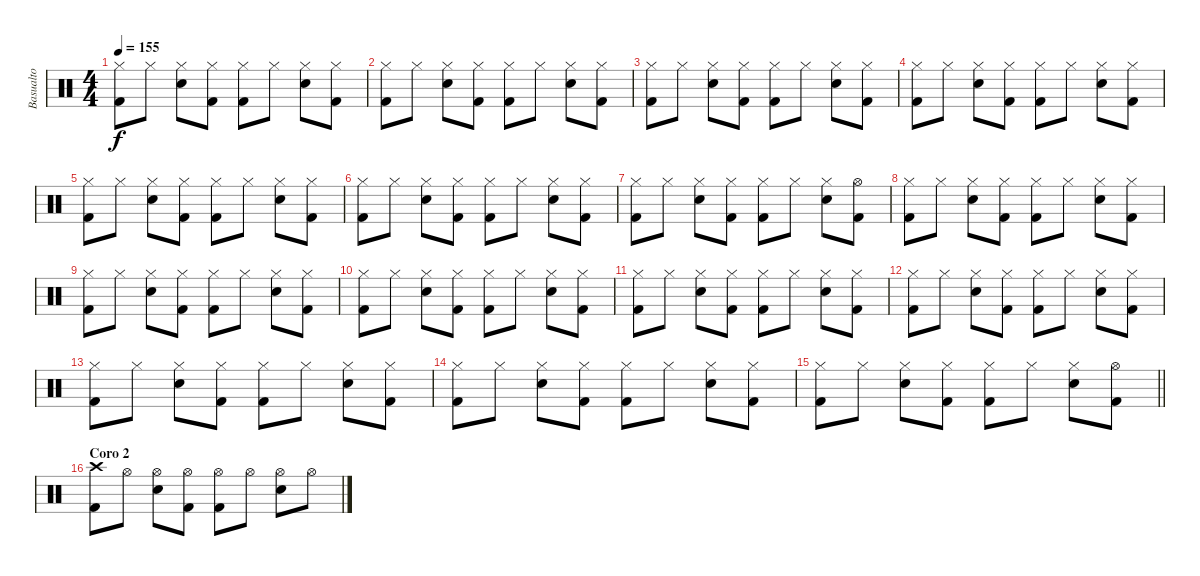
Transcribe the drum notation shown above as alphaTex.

\track ("Basualto" "Basualto") {instrument percussion}
\staff {score}
\articulation defaults
\ts (4 4)
\tempo 155
\clef neutral
\ks c
("Hi-Hat (closed)" "Kick (hit) 2").8{dy f} "Hi-Hat (closed)".8 ("Hi-Hat (closed)" "Electric Snare (hit)").8 ("Hi-Hat (closed)" "Kick (hit) 2").8 ("Hi-Hat (closed)" "Kick (hit) 2").8 "Hi-Hat (closed)".8 ("Hi-Hat (closed)" "Electric Snare (hit)").8 ("Hi-Hat (closed)" "Kick (hit) 2").8 |
("Hi-Hat (closed)" "Kick (hit) 2").8 "Hi-Hat (closed)".8 ("Hi-Hat (closed)" "Electric Snare (hit)").8 ("Hi-Hat (closed)" "Kick (hit) 2").8 ("Hi-Hat (closed)" "Kick (hit) 2").8 "Hi-Hat (closed)".8 ("Hi-Hat (closed)" "Electric Snare (hit)").8 ("Hi-Hat (closed)" "Kick (hit) 2").8 |
("Hi-Hat (closed)" "Kick (hit) 2").8 "Hi-Hat (closed)".8 ("Hi-Hat (closed)" "Electric Snare (hit)").8 ("Hi-Hat (closed)" "Kick (hit) 2").8 ("Hi-Hat (closed)" "Kick (hit) 2").8 "Hi-Hat (closed)".8 ("Hi-Hat (closed)" "Electric Snare (hit)").8 ("Hi-Hat (closed)" "Kick (hit) 2").8 |
("Hi-Hat (closed)" "Kick (hit) 2").8 "Hi-Hat (closed)".8 ("Hi-Hat (closed)" "Electric Snare (hit)").8 ("Hi-Hat (closed)" "Kick (hit) 2").8 ("Hi-Hat (closed)" "Kick (hit) 2").8 "Hi-Hat (closed)".8 ("Hi-Hat (closed)" "Electric Snare (hit)").8 ("Hi-Hat (closed)" "Kick (hit) 2").8 |
("Hi-Hat (closed)" "Kick (hit) 2").8 "Hi-Hat (closed)".8 ("Hi-Hat (closed)" "Electric Snare (hit)").8 ("Hi-Hat (closed)" "Kick (hit) 2").8 ("Hi-Hat (closed)" "Kick (hit) 2").8 "Hi-Hat (closed)".8 ("Hi-Hat (closed)" "Electric Snare (hit)").8 ("Hi-Hat (closed)" "Kick (hit) 2").8 |
("Hi-Hat (closed)" "Kick (hit) 2").8 "Hi-Hat (closed)".8 ("Hi-Hat (closed)" "Electric Snare (hit)").8 ("Hi-Hat (closed)" "Kick (hit) 2").8 ("Hi-Hat (closed)" "Kick (hit) 2").8 "Hi-Hat (closed)".8 ("Hi-Hat (closed)" "Electric Snare (hit)").8 ("Hi-Hat (closed)" "Kick (hit) 2").8 |
("Hi-Hat (closed)" "Kick (hit) 2").8 "Hi-Hat (closed)".8 ("Hi-Hat (closed)" "Electric Snare (hit)").8 ("Hi-Hat (closed)" "Kick (hit) 2").8 ("Hi-Hat (closed)" "Kick (hit) 2").8 "Hi-Hat (closed)".8 ("Hi-Hat (closed)" "Electric Snare (hit)").8 ("Hi-Hat (open)" "Kick (hit) 2").8 |
("Hi-Hat (closed)" "Kick (hit) 2").8 "Hi-Hat (closed)".8 ("Hi-Hat (closed)" "Electric Snare (hit)").8 ("Hi-Hat (closed)" "Kick (hit) 2").8 ("Hi-Hat (closed)" "Kick (hit) 2").8 "Hi-Hat (closed)".8 ("Hi-Hat (closed)" "Electric Snare (hit)").8 ("Hi-Hat (closed)" "Kick (hit) 2").8 |
("Hi-Hat (closed)" "Kick (hit) 2").8 "Hi-Hat (closed)".8 ("Hi-Hat (closed)" "Electric Snare (hit)").8 ("Hi-Hat (closed)" "Kick (hit) 2").8 ("Hi-Hat (closed)" "Kick (hit) 2").8 "Hi-Hat (closed)".8 ("Hi-Hat (closed)" "Electric Snare (hit)").8 ("Hi-Hat (closed)" "Kick (hit) 2").8 |
("Hi-Hat (closed)" "Kick (hit) 2").8 "Hi-Hat (closed)".8 ("Hi-Hat (closed)" "Electric Snare (hit)").8 ("Hi-Hat (closed)" "Kick (hit) 2").8 ("Hi-Hat (closed)" "Kick (hit) 2").8 "Hi-Hat (closed)".8 ("Hi-Hat (closed)" "Electric Snare (hit)").8 ("Hi-Hat (closed)" "Kick (hit) 2").8 |
("Hi-Hat (closed)" "Kick (hit) 2").8 "Hi-Hat (closed)".8 ("Hi-Hat (closed)" "Electric Snare (hit)").8 ("Hi-Hat (closed)" "Kick (hit) 2").8 ("Hi-Hat (closed)" "Kick (hit) 2").8 "Hi-Hat (closed)".8 ("Hi-Hat (closed)" "Electric Snare (hit)").8 ("Hi-Hat (closed)" "Kick (hit) 2").8 |
("Hi-Hat (closed)" "Kick (hit) 2").8 "Hi-Hat (closed)".8 ("Hi-Hat (closed)" "Electric Snare (hit)").8 ("Hi-Hat (closed)" "Kick (hit) 2").8 ("Hi-Hat (closed)" "Kick (hit) 2").8 "Hi-Hat (closed)".8 ("Hi-Hat (closed)" "Electric Snare (hit)").8 ("Hi-Hat (closed)" "Kick (hit) 2").8 |
("Hi-Hat (closed)" "Kick (hit) 2").8 "Hi-Hat (closed)".8 ("Hi-Hat (closed)" "Electric Snare (hit)").8 ("Hi-Hat (closed)" "Kick (hit) 2").8 ("Hi-Hat (closed)" "Kick (hit) 2").8 "Hi-Hat (closed)".8 ("Hi-Hat (closed)" "Electric Snare (hit)").8 ("Hi-Hat (closed)" "Kick (hit) 2").8 |
("Hi-Hat (closed)" "Kick (hit) 2").8 "Hi-Hat (closed)".8 ("Hi-Hat (closed)" "Electric Snare (hit)").8 ("Hi-Hat (closed)" "Kick (hit) 2").8 ("Hi-Hat (closed)" "Kick (hit) 2").8 "Hi-Hat (closed)".8 ("Hi-Hat (closed)" "Electric Snare (hit)").8 ("Hi-Hat (closed)" "Kick (hit) 2").8 |
\barLineRight lightlight
("Hi-Hat (closed)" "Kick (hit) 2").8 "Hi-Hat (closed)".8 ("Hi-Hat (closed)" "Electric Snare (hit)").8 ("Hi-Hat (closed)" "Kick (hit) 2").8 ("Hi-Hat (closed)" "Kick (hit) 2").8 "Hi-Hat (closed)".8 ("Hi-Hat (closed)" "Electric Snare (hit)").8 ("Hi-Hat (open)" "Kick (hit) 2").8 |
\section ("" "Coro 2")
("Crash high (hit)" "Kick (hit) 2").8 "Hi-Hat (open)".8 ("Hi-Hat (open)" "Electric Snare (hit)").8 ("Hi-Hat (open)" "Kick (hit) 2").8 ("Hi-Hat (open)" "Kick (hit) 2").8 "Hi-Hat (open)".8 ("Hi-Hat (open)" "Electric Snare (hit)").8 "Hi-Hat (open)".8
